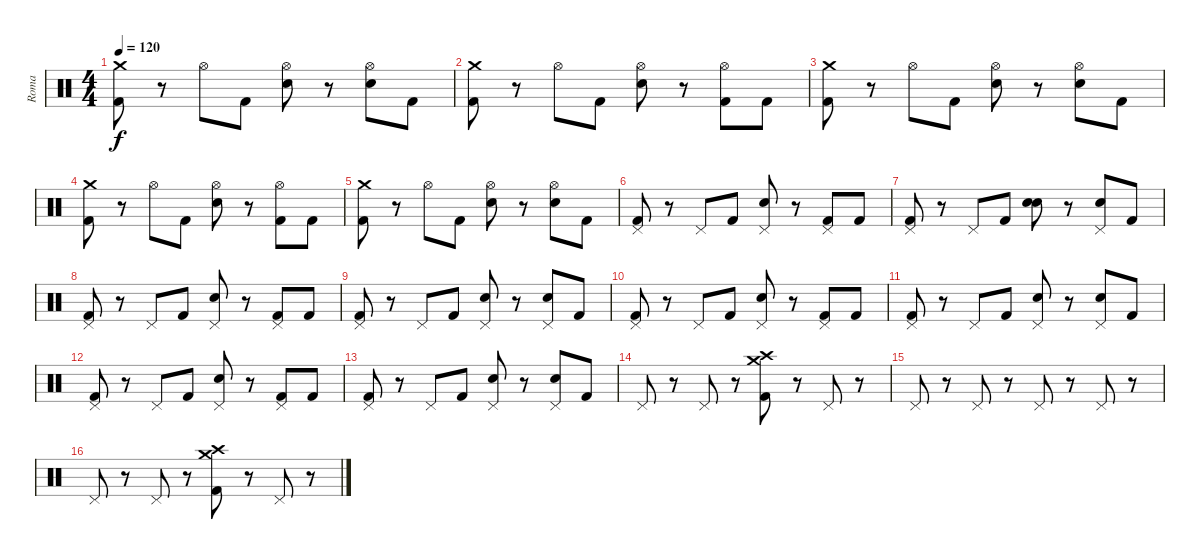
\track ("Roma" "Roma") {instrument percussion}
\staff {score}
\articulation defaults
\ts (4 4)
\tempo 120
\clef neutral
\ks c
("Crash medium (hit)" "Kick (hit) 2").8{dy f} r.8 "Hi-Hat (open)".8 "Kick (hit) 2".8 ("Hi-Hat (open)" "Electric Snare (hit)").8 r.8 ("Hi-Hat (open)" "Electric Snare (hit)").8 "Kick (hit) 2".8 |
("Crash medium (hit)" "Kick (hit) 2").8 r.8 "Hi-Hat (open)".8 "Kick (hit) 2".8 ("Hi-Hat (open)" "Electric Snare (hit)").8 r.8 ("Hi-Hat (open)" "Kick (hit) 2").8 "Kick (hit) 2".8 |
("Crash medium (hit)" "Kick (hit) 2").8 r.8 "Hi-Hat (open)".8 "Kick (hit) 2".8 ("Hi-Hat (open)" "Electric Snare (hit)").8 r.8 ("Hi-Hat (open)" "Electric Snare (hit)").8 "Kick (hit) 2".8 |
("Crash medium (hit)" "Kick (hit) 2").8 r.8 "Hi-Hat (open)".8 "Kick (hit) 2".8 ("Hi-Hat (open)" "Electric Snare (hit)").8 r.8 ("Hi-Hat (open)" "Kick (hit) 2").8 "Kick (hit) 2".8 |
("Crash medium (hit)" "Kick (hit) 2").8 r.8 "Hi-Hat (open)".8 "Kick (hit) 2".8 ("Hi-Hat (open)" "Electric Snare (hit)").8 r.8 ("Hi-Hat (open)" "Electric Snare (hit)").8 "Kick (hit) 2".8 |
("Pedal Hi-Hat (hit)" "Kick (hit) 2").8 r.8 "Pedal Hi-Hat (hit)".8 "Kick (hit) 2".8 ("Pedal Hi-Hat (hit)" "Electric Snare (hit)").8 r.8 ("Pedal Hi-Hat (hit)" "Kick (hit) 2").8 "Kick (hit) 2".8 |
("Pedal Hi-Hat (hit)" "Kick (hit) 2").8 r.8 "Pedal Hi-Hat (hit)".8 "Kick (hit) 2".8 ("Snare (hit)" "Electric Snare (hit)").8 r.8 ("Pedal Hi-Hat (hit)" "Electric Snare (hit)").8 "Kick (hit) 2".8 |
("Pedal Hi-Hat (hit)" "Kick (hit) 2").8 r.8 "Pedal Hi-Hat (hit)".8 "Kick (hit) 2".8 ("Pedal Hi-Hat (hit)" "Electric Snare (hit)").8 r.8 ("Pedal Hi-Hat (hit)" "Kick (hit) 2").8 "Kick (hit) 2".8 |
("Pedal Hi-Hat (hit)" "Kick (hit) 2").8 r.8 "Pedal Hi-Hat (hit)".8 "Kick (hit) 2".8 ("Pedal Hi-Hat (hit)" "Electric Snare (hit)").8 r.8 ("Pedal Hi-Hat (hit)" "Electric Snare (hit)").8 "Kick (hit) 2".8 |
("Pedal Hi-Hat (hit)" "Kick (hit) 2").8 r.8 "Pedal Hi-Hat (hit)".8 "Kick (hit) 2".8 ("Pedal Hi-Hat (hit)" "Electric Snare (hit)").8 r.8 ("Pedal Hi-Hat (hit)" "Kick (hit) 2").8 "Kick (hit) 2".8 |
("Pedal Hi-Hat (hit)" "Kick (hit) 2").8 r.8 "Pedal Hi-Hat (hit)".8 "Kick (hit) 2".8 ("Pedal Hi-Hat (hit)" "Electric Snare (hit)").8 r.8 ("Pedal Hi-Hat (hit)" "Electric Snare (hit)").8 "Kick (hit) 2".8 |
("Pedal Hi-Hat (hit)" "Kick (hit) 2").8 r.8 "Pedal Hi-Hat (hit)".8 "Kick (hit) 2".8 ("Pedal Hi-Hat (hit)" "Electric Snare (hit)").8 r.8 ("Pedal Hi-Hat (hit)" "Kick (hit) 2").8 "Kick (hit) 2".8 |
("Pedal Hi-Hat (hit)" "Kick (hit) 2").8 r.8 "Pedal Hi-Hat (hit)".8 "Kick (hit) 2".8 ("Pedal Hi-Hat (hit)" "Electric Snare (hit)").8 r.8 ("Pedal Hi-Hat (hit)" "Electric Snare (hit)").8 "Kick (hit) 2".8 |
"Pedal Hi-Hat (hit)".8 r.8 "Pedal Hi-Hat (hit)".8 r.8 ("Crash medium (hit)" "Crash high (hit)" "Kick (hit) 2").8 r.8 "Pedal Hi-Hat (hit)".8 r.8 |
"Pedal Hi-Hat (hit)".8 r.8 "Pedal Hi-Hat (hit)".8 r.8 "Pedal Hi-Hat (hit)".8 r.8 "Pedal Hi-Hat (hit)".8 r.8 |
"Pedal Hi-Hat (hit)".8 r.8 "Pedal Hi-Hat (hit)".8 r.8 ("Crash medium (hit)" "Crash high (hit)" "Kick (hit) 2").8 r.8 "Pedal Hi-Hat (hit)".8 r.8
